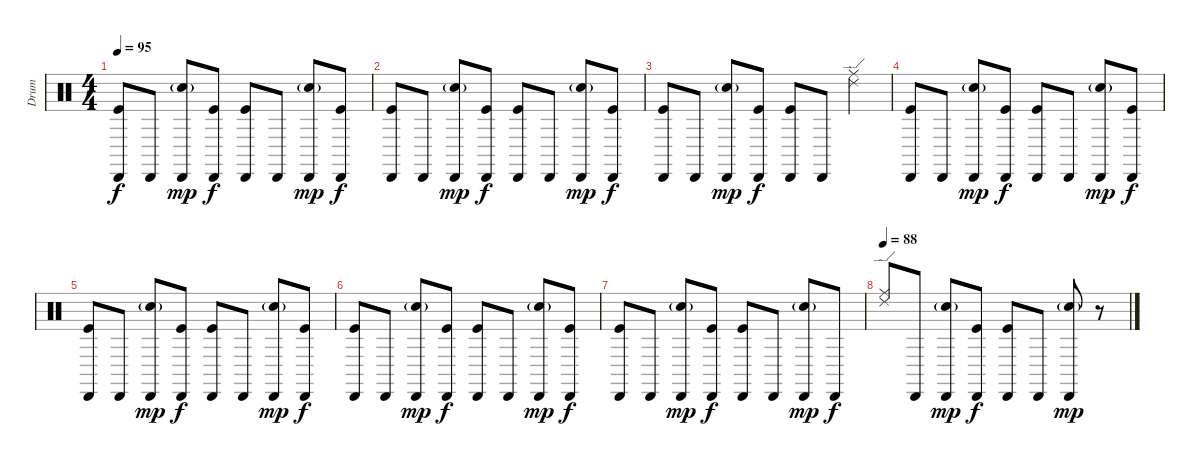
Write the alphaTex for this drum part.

\track ("Drum" "Drum") {instrument percussion}
\staff {score}
\articulation defaults
\ts (4 4)
\tempo 95
\clef neutral
\ks c
("Cabasa (hit)" "Kick (hit)").8{dy f} "Cabasa (hit)".8 ("Cabasa (hit)" "Electric Snare (hit)"{g}).8{dy mp} ("Cabasa (hit)" "Kick (hit)").8{dy f} ("Cabasa (hit)" "Kick (hit)").8 "Cabasa (hit)".8 ("Cabasa (hit)" "Electric Snare (hit)"{g}).8{dy mp} ("Cabasa (hit)" "Kick (hit)").8{dy f} |
("Cabasa (hit)" "Kick (hit)").8 "Cabasa (hit)".8 ("Cabasa (hit)" "Electric Snare (hit)"{g}).8{dy mp} ("Cabasa (hit)" "Kick (hit)").8{dy f} ("Cabasa (hit)" "Kick (hit)").8 "Cabasa (hit)".8 ("Cabasa (hit)" "Electric Snare (hit)"{g}).8{dy mp} ("Cabasa (hit)" "Kick (hit)").8{dy f} |
("Cabasa (hit)" "Kick (hit)").8 "Cabasa (hit)".8 ("Cabasa (hit)" "Electric Snare (hit)"{g}).8{dy mp} ("Cabasa (hit)" "Kick (hit)").8{dy f} ("Cabasa (hit)" "Kick (hit)").8 "Cabasa (hit)".8 ("Ride (edge) 2" "Ride (middle)").4 |
("Cabasa (hit)" "Kick (hit)").8 "Cabasa (hit)".8 ("Cabasa (hit)" "Electric Snare (hit)"{g}).8{dy mp} ("Cabasa (hit)" "Kick (hit)").8{dy f} ("Cabasa (hit)" "Kick (hit)").8 "Cabasa (hit)".8 ("Cabasa (hit)" "Electric Snare (hit)"{g}).8{dy mp} ("Cabasa (hit)" "Kick (hit)").8{dy f} |
("Cabasa (hit)" "Kick (hit)").8{volume 7} "Cabasa (hit)".8 ("Cabasa (hit)" "Electric Snare (hit)"{g}).8{dy mp} ("Cabasa (hit)" "Kick (hit)").8{dy f} ("Cabasa (hit)" "Kick (hit)").8 "Cabasa (hit)".8 ("Cabasa (hit)" "Electric Snare (hit)"{g}).8{dy mp} ("Cabasa (hit)" "Kick (hit)").8{dy f} |
("Cabasa (hit)" "Kick (hit)").8 "Cabasa (hit)".8 ("Cabasa (hit)" "Electric Snare (hit)"{g}).8{dy mp} ("Cabasa (hit)" "Kick (hit)").8{dy f} ("Cabasa (hit)" "Kick (hit)").8 "Cabasa (hit)".8 ("Cabasa (hit)" "Electric Snare (hit)"{g}).8{dy mp} ("Cabasa (hit)" "Kick (hit)").8{dy f} |
("Cabasa (hit)" "Kick (hit)").8 "Cabasa (hit)".8 ("Cabasa (hit)" "Electric Snare (hit)"{g}).8{dy mp} ("Cabasa (hit)" "Kick (hit)").8{dy f} ("Cabasa (hit)" "Kick (hit)").8 "Cabasa (hit)".8 ("Cabasa (hit)" "Electric Snare (hit)"{g}).8{dy mp} "Cabasa (hit)".8{dy f} |
\tempo 88
("Ride (edge) 2" "Ride (middle)").8 "Cabasa (hit)".8 ("Cabasa (hit)" "Electric Snare (hit)"{g}).8{dy mp} ("Cabasa (hit)" "Kick (hit)").8{dy f} ("Cabasa (hit)" "Kick (hit)").8 "Cabasa (hit)".8 ("Cabasa (hit)" "Electric Snare (hit)"{g}).8{dy mp} r.8
